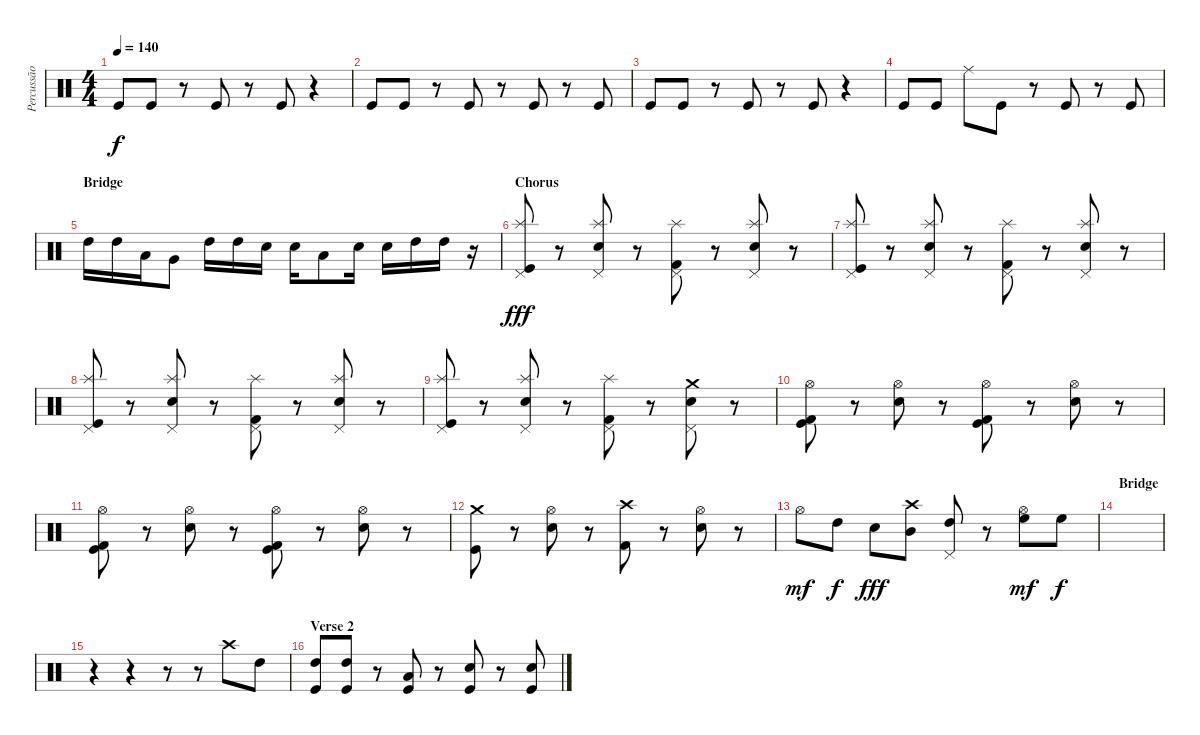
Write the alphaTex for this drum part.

\track ("Percussão (Lucas)" "Percussão ") {instrument percussion}
\staff {score}
\articulation defaults
\ts (4 4)
\tempo 140
\clef neutral
\ks c "Kick (hit)".8{dy f} "Kick (hit)".8
r.8 "Kick (hit)".8 r.8 "Kick (hit)".8 r.4 |
"Kick (hit)".8 "Kick (hit)".8 r.8 "Kick (hit)".8 r.8 "Kick (hit)".8 r.8 "Kick (hit)".8 |
"Kick (hit)".8 "Kick (hit)".8 r.8 "Kick (hit)".8 r.8 "Kick (hit)".8 r.4 |
"Kick (hit)".8 "Kick (hit)".8 "Ride (middle)".8 "Kick (hit)".8 r.8 "Kick (hit)".8 r.8 "Kick (hit)".8 |
\section ("" "Bridge")
"High Tom (hit)".16 "High Tom (hit)".16 "Low Tom (hit)".16 "Very Low Tom (hit)".8 "High Tom (hit)".16 "High Tom (hit)".16 "Electric Snare (hit)".16 "Electric Snare (hit)".16 "Low Tom (hit)".8 "Electric Snare (hit)".16 "Electric Snare (hit)".16 "High Tom (hit)".16 "High Tom (hit)".16 r.16 |
\section ("" "Chorus")
("Splash (hit)" "Pedal Hi-Hat (hit)" "Kick (hit)").8{dy fff} r.8 ("Splash (hit)" "Pedal Hi-Hat (hit)" "Electric Snare (hit)").8 r.8 ("Splash (hit)" "Pedal Hi-Hat (hit)" "Kick (hit) 2").8 r.8 ("Splash (hit)" "Pedal Hi-Hat (hit)" "Electric Snare (hit)").8 r.8 |
("Splash (hit)" "Pedal Hi-Hat (hit)" "Kick (hit)").8 r.8 ("Splash (hit)" "Pedal Hi-Hat (hit)" "Electric Snare (hit)").8 r.8 ("Splash (hit)" "Pedal Hi-Hat (hit)" "Kick (hit) 2").8 r.8 ("Splash (hit)" "Pedal Hi-Hat (hit)" "Electric Snare (hit)").8 r.8 |
("Splash (hit)" "Pedal Hi-Hat (hit)" "Kick (hit)").8 r.8 ("Splash (hit)" "Pedal Hi-Hat (hit)" "Electric Snare (hit)").8 r.8 ("Splash (hit)" "Pedal Hi-Hat (hit)" "Kick (hit) 2").8 r.8 ("Splash (hit)" "Pedal Hi-Hat (hit)" "Electric Snare (hit)").8 r.8 |
("Splash (hit)" "Pedal Hi-Hat (hit)" "Kick (hit)").8 r.8 ("Splash (hit)" "Pedal Hi-Hat (hit)" "Electric Snare (hit)").8 r.8 ("Splash (hit)" "Pedal Hi-Hat (hit)" "Kick (hit) 2").8 r.8 ("Crash medium (hit)" "Pedal Hi-Hat (hit)" "Electric Snare (hit)").8 r.8 |
("Hi-Hat (open)" "Kick (hit) 2" "Kick (hit)").8 r.8 ("Hi-Hat (open)" "Electric Snare (hit)").8 r.8 ("Hi-Hat (open)" "Kick (hit) 2" "Kick (hit)").8 r.8 ("Hi-Hat (open)" "Electric Snare (hit)").8 r.8 |
("Hi-Hat (open)" "Kick (hit) 2" "Kick (hit)").8 r.8 ("Hi-Hat (open)" "Electric Snare (hit)").8 r.8 ("Hi-Hat (open)" "Kick (hit) 2" "Kick (hit)").8 r.8 ("Hi-Hat (open)" "Electric Snare (hit)").8 r.8 |
("Crash medium (hit)" "Kick (hit)").8 r.8 ("Hi-Hat (open)" "Electric Snare (hit)").8 r.8 ("Crash high (hit)" "Kick (hit) 2").8 r.8 ("Hi-Hat (open)" "Electric Snare (hit)").8 r.8 |
"Hi-Hat (open)".8{dy mf} "High Tom (hit)".8{dy f} "Electric Snare (hit)".8{dy fff} ("Crash high (hit)" "Mid Tom (hit)").8 ("Pedal Hi-Hat (hit)" "High Tom (hit)").8 r.8 ("Hi-Hat (open)" "High Floor Tom (hit)").8{dy mf} "High Floor Tom (hit)".8{dy f} |
\section ("" "Bridge")
|
r.4 r.4 r.8 r.8 "Crash high (hit)".8 "High Tom (hit)".8 |
\section ("" "Verse 2")
("High Tom (hit)" "Kick (hit)").8 ("High Tom (hit)" "Kick (hit)").8 r.8 ("Low Tom (hit)" "Kick (hit)").8 r.8 ("Electric Snare (hit)" "Kick (hit)").8 r.8 ("Electric Snare (hit)" "Kick (hit)").8
